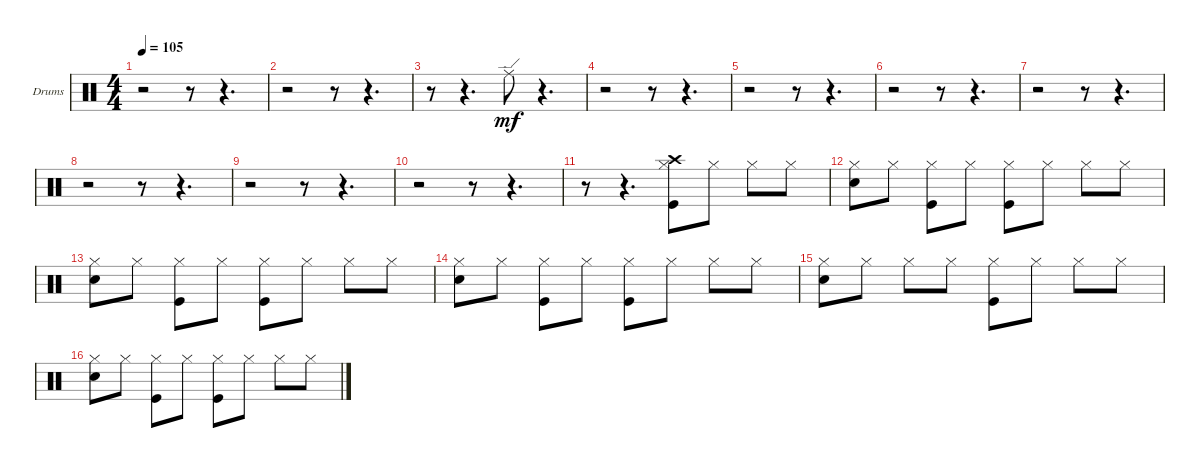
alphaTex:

\defaultSystemsLayout 4
\bracketExtendMode groupsimilarinstruments
\firstSystemTrackNameOrientation horizontal
\otherSystemsTrackNameOrientation horizontal
\track ("Drumkit" "Drums") {instrument percussion}
\staff {score}
\articulation defaults
\ts (4 4)
\tempo 105
\clef neutral
\scale
0.333333
\ks c
r.2{dy mf} r.8 r.4{d} |
\scale
0.333333 r.2 r.8 r.4{d} |
\scale
0.333333 r.8 r.4{d} "Ride (edge)".8 r.4{d} |
\scale
0.333333 r.2 r.8 r.4{d} |
\scale
0.333333 r.2 r.8 r.4{d} |
\scale
0.333333 r.2 r.8 r.4{d} |
\scale
0.333333 r.2 r.8 r.4{d} |
\scale
0.333333 r.2 r.8 r.4{d} |
\scale
0.333333 r.2 r.8 r.4{d} |
\scale
0.333333 r.2 r.8 r.4{d} |
\scale
0.333333 r.8 r.4{d} ("Kick (hit)" "Crash high (hit)" "Hi-Hat (closed)").8 "Hi-Hat (closed)".8 "Hi-Hat (closed)".8 "Hi-Hat (closed)".8 |
\scale
0.333333 ("Snare (hit) 2" "Hi-Hat (closed)").8 "Hi-Hat (closed)".8 ("Kick (hit)" "Hi-Hat (closed)").8 "Hi-Hat (closed)".8 ("Kick (hit)" "Hi-Hat (closed)").8 "Hi-Hat (closed)".8 "Hi-Hat (closed)".8 "Hi-Hat (closed)".8 |
\scale
0.333333 ("Snare (hit) 2" "Hi-Hat (closed)").8 "Hi-Hat (closed)".8 ("Kick (hit)" "Hi-Hat (closed)").8 "Hi-Hat (closed)".8 ("Kick (hit)" "Hi-Hat (closed)").8 "Hi-Hat (closed)".8 "Hi-Hat (closed)".8 "Hi-Hat (closed)".8 |
\scale
0.333333 ("Snare (hit) 2" "Hi-Hat (closed)").8 "Hi-Hat (closed)".8 ("Kick (hit)" "Hi-Hat (closed)").8 "Hi-Hat (closed)".8 ("Kick (hit)" "Hi-Hat (closed)").8 "Hi-Hat (closed)".8 "Hi-Hat (closed)".8 "Hi-Hat (closed)".8 |
\scale
0.333333 ("Snare (hit) 2" "Hi-Hat (closed)").8 "Hi-Hat (closed)".8 "Hi-Hat (closed)".8 "Hi-Hat (closed)".8 ("Kick (hit)" "Hi-Hat (closed)").8 "Hi-Hat (closed)".8 "Hi-Hat (closed)".8 "Hi-Hat (closed)".8 |
\scale
0.333333 ("Snare (hit) 2" "Hi-Hat (closed)").8 "Hi-Hat (closed)".8 ("Kick (hit)" "Hi-Hat (closed)").8 "Hi-Hat (closed)".8 ("Kick (hit)" "Hi-Hat (closed)").8 "Hi-Hat (closed)".8 "Hi-Hat (closed)".8 "Hi-Hat (closed)".8
